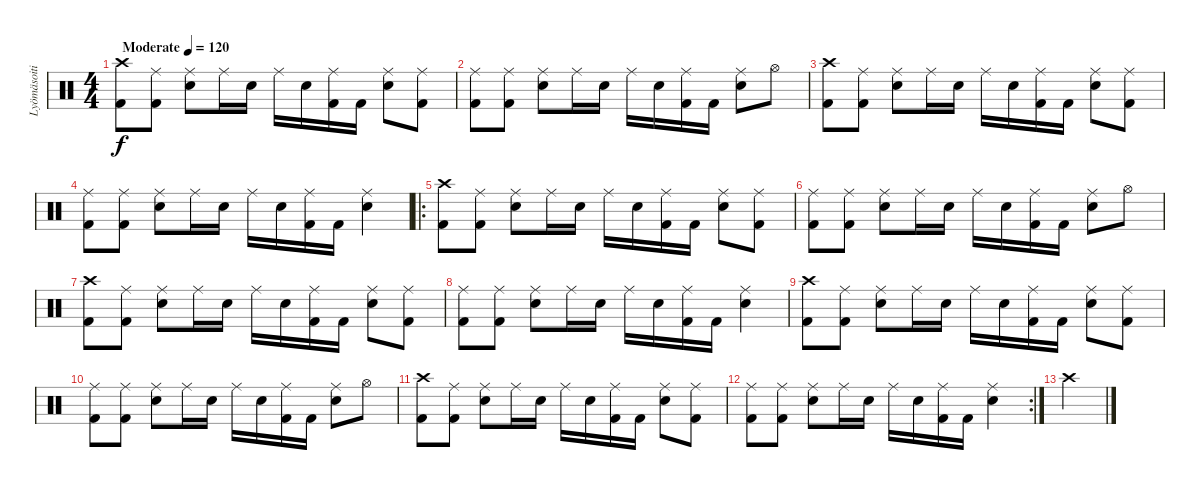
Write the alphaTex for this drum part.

\track ("Lyömäsoitin" "Lyömäsoiti") {instrument percussion}
\staff {score}
\articulation defaults
\ts (4 4)
\tempo (120 "Moderate")
\clef neutral
\ks c
("Crash high (hit)" "Kick (hit) 2").8{dy f} ("Ride (middle)" "Kick (hit) 2").8 ("Ride (middle)" "Snare (hit) 2").8 "Ride (middle)".16 "Snare (hit) 2".16 "Ride (middle)".16 "Snare (hit) 2".16 ("Ride (middle)" "Kick (hit) 2").16 "Kick (hit) 2".16 ("Ride (middle)" "Snare (hit) 2").8 ("Ride (middle)" "Kick (hit) 2").8 |
("Ride (middle)" "Kick (hit) 2").8 ("Ride (middle)" "Kick (hit) 2").8 ("Ride (middle)" "Snare (hit) 2").8 "Ride (middle)".16 "Snare (hit) 2".16 "Ride (middle)".16 "Snare (hit) 2".16 ("Ride (middle)" "Kick (hit) 2").16 "Kick (hit) 2".16 ("Ride (middle)" "Snare (hit) 2").8 "Hi-Hat (open)".8 |
("Crash high (hit)" "Kick (hit) 2").8 ("Ride (middle)" "Kick (hit) 2").8 ("Ride (middle)" "Snare (hit) 2").8 "Ride (middle)".16 "Snare (hit) 2".16 "Ride (middle)".16 "Snare (hit) 2".16 ("Ride (middle)" "Kick (hit) 2").16 "Kick (hit) 2".16 ("Ride (middle)" "Snare (hit) 2").8 ("Ride (middle)" "Kick (hit) 2").8 |
("Ride (middle)" "Kick (hit) 2").8 ("Ride (middle)" "Kick (hit) 2").8 ("Ride (middle)" "Snare (hit) 2").8 "Ride (middle)".16 "Snare (hit) 2".16 "Ride (middle)".16 "Snare (hit) 2".16 ("Ride (middle)" "Kick (hit) 2").16 "Kick (hit) 2".16 ("Ride (middle)" "Snare (hit) 2").4 |
\ro
("Crash high (hit)" "Kick (hit) 2").8 ("Ride (middle)" "Kick (hit) 2").8 ("Ride (middle)" "Snare (hit) 2").8 "Ride (middle)".16 "Snare (hit) 2".16 "Ride (middle)".16 "Snare (hit) 2".16 ("Ride (middle)" "Kick (hit) 2").16 "Kick (hit) 2".16 ("Ride (middle)" "Snare (hit) 2").8 ("Ride (middle)" "Kick (hit) 2").8 |
("Ride (middle)" "Kick (hit) 2").8 ("Ride (middle)" "Kick (hit) 2").8 ("Ride (middle)" "Snare (hit) 2").8 "Ride (middle)".16 "Snare (hit) 2".16 "Ride (middle)".16 "Snare (hit) 2".16 ("Ride (middle)" "Kick (hit) 2").16 "Kick (hit) 2".16 ("Ride (middle)" "Snare (hit) 2").8 "Hi-Hat (open)".8 |
("Crash high (hit)" "Kick (hit) 2").8 ("Ride (middle)" "Kick (hit) 2").8 ("Ride (middle)" "Snare (hit) 2").8 "Ride (middle)".16 "Snare (hit) 2".16 "Ride (middle)".16 "Snare (hit) 2".16 ("Ride (middle)" "Kick (hit) 2").16 "Kick (hit) 2".16 ("Ride (middle)" "Snare (hit) 2").8 ("Ride (middle)" "Kick (hit) 2").8 |
("Ride (middle)" "Kick (hit) 2").8 ("Ride (middle)" "Kick (hit) 2").8 ("Ride (middle)" "Snare (hit) 2").8 "Ride (middle)".16 "Snare (hit) 2".16 "Ride (middle)".16 "Snare (hit) 2".16 ("Ride (middle)" "Kick (hit) 2").16 "Kick (hit) 2".16 ("Ride (middle)" "Snare (hit) 2").4 |
("Crash high (hit)" "Kick (hit) 2").8 ("Ride (middle)" "Kick (hit) 2").8 ("Ride (middle)" "Snare (hit) 2").8 "Ride (middle)".16 "Snare (hit) 2".16 "Ride (middle)".16 "Snare (hit) 2".16 ("Ride (middle)" "Kick (hit) 2").16 "Kick (hit) 2".16 ("Ride (middle)" "Snare (hit) 2").8 ("Ride (middle)" "Kick (hit) 2").8 |
("Ride (middle)" "Kick (hit) 2").8 ("Ride (middle)" "Kick (hit) 2").8 ("Ride (middle)" "Snare (hit) 2").8 "Ride (middle)".16 "Snare (hit) 2".16 "Ride (middle)".16 "Snare (hit) 2".16 ("Ride (middle)" "Kick (hit) 2").16 "Kick (hit) 2".16 ("Ride (middle)" "Snare (hit) 2").8 "Hi-Hat (open)".8 |
("Crash high (hit)" "Kick (hit) 2").8 ("Ride (middle)" "Kick (hit) 2").8 ("Ride (middle)" "Snare (hit) 2").8 "Ride (middle)".16 "Snare (hit) 2".16 "Ride (middle)".16 "Snare (hit) 2".16 ("Ride (middle)" "Kick (hit) 2").16 "Kick (hit) 2".16 ("Ride (middle)" "Snare (hit) 2").8 ("Ride (middle)" "Kick (hit) 2").8 |
\rc 2
("Ride (middle)" "Kick (hit) 2").8 ("Ride (middle)" "Kick (hit) 2").8 ("Ride (middle)" "Snare (hit) 2").8 "Ride (middle)".16 "Snare (hit) 2".16 "Ride (middle)".16 "Snare (hit) 2".16 ("Ride (middle)" "Kick (hit) 2").16 "Kick (hit) 2".16 ("Ride (middle)" "Snare (hit) 2").4 |
"Crash high (hit)".4
